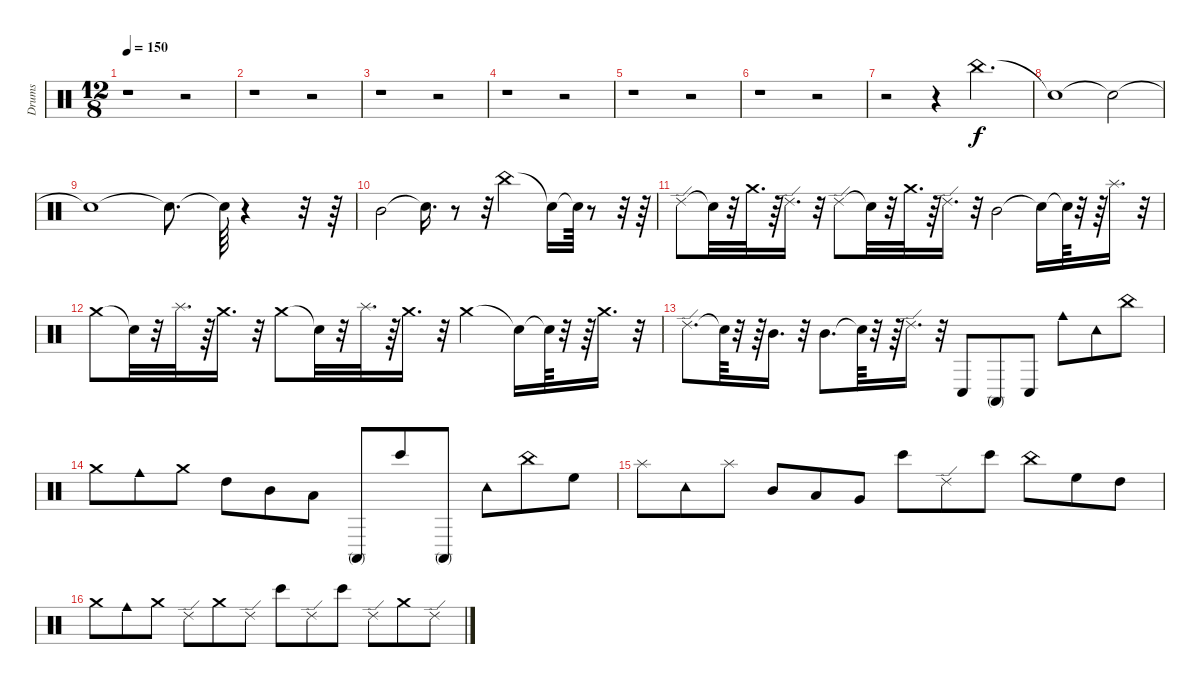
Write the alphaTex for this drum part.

\track ("Drums" "Drums") {instrument percussion}
\staff {score}
\articulation defaults
\ts (12 8)
\tempo 150
\clef neutral
\ks c
r.1{dy f} r.2 |
r.1 r.2 |
r.1 r.2 |
r.1 r.2 |
r.1 r.2 |
r.1 r.2 |
r.2 r.4 "China (hit)".2{d} |
"Snare (hit)"{t}.1 "Snare (hit)"{t}.2 |
"Snare (hit)"{t}.1 "Snare (hit)"{t}.8{d} "Snare (hit)"{t}.64 r.4 r.32 r.64 |
"Mid Tom (hit)".2 "Snare (hit)"{t}.16{d} r.8 r.32 "China (hit)".2 "Snare (hit)"{t}.16 "Snare (hit)"{t}.64 r.8 r.32 r.64 |
"Ride (edge) 2".8 "Snare (hit)"{t}.32 r.32 "Crash medium (hit)".32{d} r.64 "Ride (edge) 2".16{d} r.32 "Ride (edge) 2".8 "Snare (hit)"{t}.32 r.32 "Crash medium (hit)".32{d} r.64 "Ride (edge) 2".16{d} r.32 "Mid Tom (hit)".2 "Snare (hit)"{t}.16 "Snare (hit)"{t}.64 r.32 r.64 "Splash (hit)".16{d} r.32 |
"Crash medium (hit)".8 "Snare (hit)"{t}.32 r.32 "Splash (hit)".32{d} r.64 "Crash medium (hit)".16{d} r.32 "Crash medium (hit)".8 "Snare (hit)"{t}.32 r.32 "Splash (hit)".32{d} r.64 "Crash medium (hit)".16{d} r.32 "Crash medium (hit)".2 "Snare (hit)"{t}.16 "Snare (hit)"{t}.64 r.32 r.64 "Crash medium (hit)".16{d} r.32 |
"Ride (edge) 2".8{d} "Snare (hit)"{t}.64 r.32 r.64 "Mid Tom (hit)".16{d} r.32 "Mid Tom (hit)".8{d} "Snare (hit)"{t}.64 r.32 r.64 "Ride (edge) 2".16{d} r.32 "Conga low (hit)".8 "Conga high (mute)".8 "Conga low (hit)".8 "Cowbell medium (hit)".8 "Tambourine (hit)".8 "China (hit)".8 |
"Crash medium (hit)".8 "Cowbell medium (hit)".8 "Crash medium (hit)".8 "High Tom (hit)".8 "Mid Tom (hit)".8 "Low Tom (hit)".8 "Conga high (mute)".8 "Bongo High (hit)".8 "Conga high (mute)".8 "Tambourine (hit)".8 "China (hit)".8 "High Floor Tom (hit)".8 |
"Splash (hit)".8 "Tambourine (hit)".8 "Splash (hit)".8 "Mid Tom (hit)".8 "Low Tom (hit)".8 "Very Low Tom (hit)".8 "Bongo High (hit)".8 "Ride (edge) 2".8 "Bongo High (hit)".8 "China (hit)".8 "High Floor Tom (hit)".8 "High Tom (hit)".8 |
"Crash medium (hit)".8 "Cowbell medium (hit)".8 "Crash medium (hit)".8 "Ride (edge) 2".8 "Crash medium (hit)".8 "Ride (edge) 2".8 "Bongo High (hit)".8 "Ride (edge) 2".8 "Bongo High (hit)".8 "Ride (edge) 2".8 "Crash medium (hit)".8 "Ride (edge) 2".8
